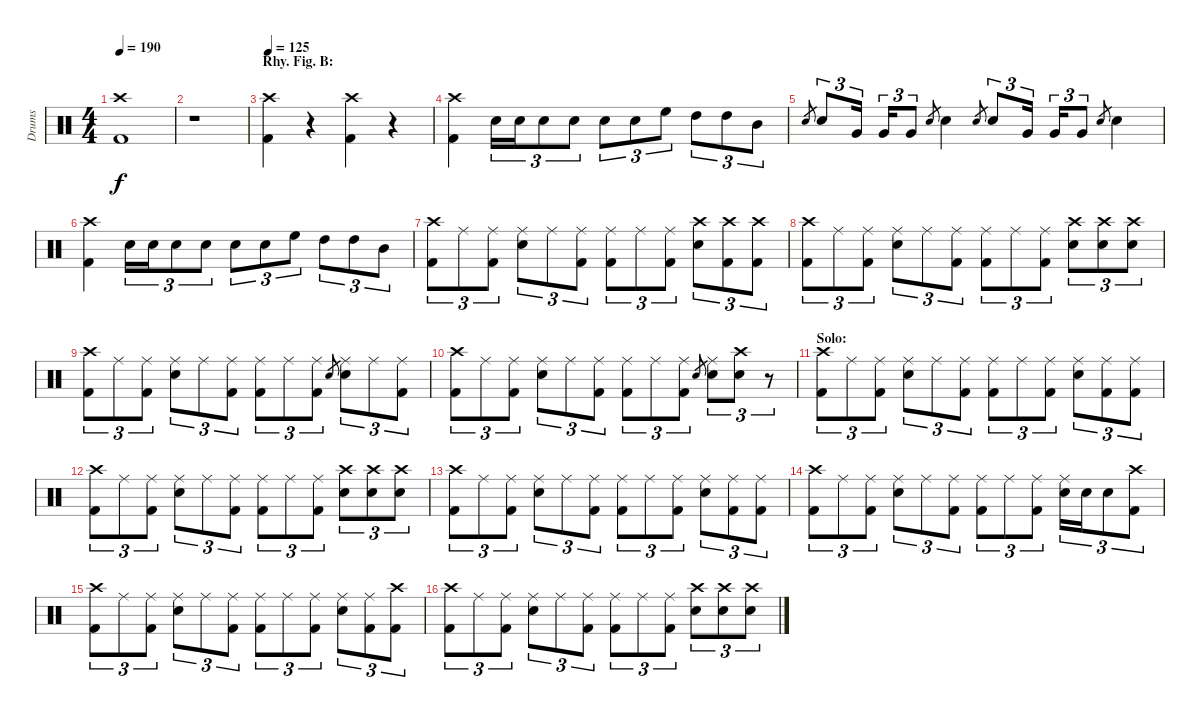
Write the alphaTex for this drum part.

\track ("Drums" "Drums") {instrument percussion}
\staff {score}
\articulation defaults
\ts (4 4)
\tempo 190
\clef neutral
\ks c
("Crash high (hit)" "Kick (hit) 2").1{dy f} |
r.1 |
\section ("" "Rhy. Fig. B:")
\tempo 125
("Crash high (hit)" "Kick (hit) 2").4 r.4 ("Crash high (hit)" "Kick (hit) 2").4 r.4 |
("Crash high (hit)" "Kick (hit) 2").4 "Electric Snare (hit)".16{tu (3 2)} "Electric Snare (hit)".16{tu (3 2)} "Electric Snare (hit)".8{tu (3 2)} "Electric Snare (hit)".8{tu (3 2)} "Electric Snare (hit)".8{tu (3 2)} "Electric Snare (hit)".8{tu (3 2)} "High Floor Tom (hit)".8{tu (3 2)} "High Tom (hit)".8{tu (3 2)} "High Tom (hit)".8{tu (3 2)} "Mid Tom (hit)".8{tu (3 2)} |
"Electric Snare (hit)".8{gr} "Electric Snare (hit)".8{tu (3 2)} "Very Low Tom (hit)".16{tu (3 2)} "Very Low Tom (hit)".16{tu (3 2)} "Very Low Tom (hit)".8{tu (3 2)} "Electric Snare (hit)".8{gr} "Electric Snare (hit)".4 "Electric Snare (hit)".8{gr} "Electric Snare (hit)".8{tu (3 2)} "Very Low Tom (hit)".16{tu (3 2)} "Very Low Tom (hit)".16{tu (3 2)} "Very Low Tom (hit)".8{tu (3 2)} "Electric Snare (hit)".8{gr} "Electric Snare (hit)".4 |
("Crash high (hit)" "Kick (hit) 2").4 "Electric Snare (hit)".16{tu (3 2)} "Electric Snare (hit)".16{tu (3 2)} "Electric Snare (hit)".8{tu (3 2)} "Electric Snare (hit)".8{tu (3 2)} "Electric Snare (hit)".8{tu (3 2)} "Electric Snare (hit)".8{tu (3 2)} "High Floor Tom (hit)".8{tu (3 2)} "High Tom (hit)".8{tu (3 2)} "High Tom (hit)".8{tu (3 2)} "Mid Tom (hit)".8{tu (3 2)} |
("Crash high (hit)" "Kick (hit) 2").8{tu (3 2)} "Ride (middle)".8{tu (3 2)} ("Ride (middle)" "Kick (hit) 2").8{tu (3 2)} ("Ride (middle)" "Electric Snare (hit)").8{tu (3 2)} "Ride (middle)".8{tu (3 2)} ("Ride (middle)" "Kick (hit) 2").8{tu (3 2)} ("Ride (middle)" "Kick (hit) 2").8{tu (3 2)} "Ride (middle)".8{tu (3 2)} ("Ride (middle)" "Kick (hit) 2").8{tu (3 2)} ("Crash high (hit)" "Electric Snare (hit)").8{tu (3 2)} ("Crash high (hit)" "Kick (hit) 2").8{tu (3 2)} ("Crash high (hit)" "Kick (hit) 2").8{tu (3 2)} |
("Crash high (hit)" "Kick (hit) 2").8{tu (3 2)} "Ride (middle)".8{tu (3 2)} ("Ride (middle)" "Kick (hit) 2").8{tu (3 2)} ("Ride (middle)" "Electric Snare (hit)").8{tu (3 2)} "Ride (middle)".8{tu (3 2)} ("Ride (middle)" "Kick (hit) 2").8{tu (3 2)} ("Ride (middle)" "Kick (hit) 2").8{tu (3 2)} "Ride (middle)".8{tu (3 2)} ("Ride (middle)" "Kick (hit) 2").8{tu (3 2)} ("Crash high (hit)" "Electric Snare (hit)").8{tu (3 2)} ("Crash high (hit)" "Electric Snare (hit)").8{tu (3 2)} ("Crash high (hit)" "Electric Snare (hit)").8{tu (3 2)} |
("Crash high (hit)" "Kick (hit) 2").8{tu (3 2)} "Ride (middle)".8{tu (3 2)} ("Ride (middle)" "Kick (hit) 2").8{tu (3 2)} ("Ride (middle)" "Electric Snare (hit)").8{tu (3 2)} "Ride (middle)".8{tu (3 2)} ("Ride (middle)" "Kick (hit) 2").8{tu (3 2)} ("Ride (middle)" "Kick (hit) 2").8{tu (3 2)} "Ride (middle)".8{tu (3 2)} ("Ride (middle)" "Kick (hit) 2").8{tu (3 2)} "Electric Snare (hit)".8{gr} ("Ride (middle)" "Electric Snare (hit)").8{tu (3 2)} "Ride (middle)".8{tu (3 2)} ("Ride (middle)" "Kick (hit) 2").8{tu (3 2)} |
("Crash high (hit)" "Kick (hit) 2").8{tu (3 2)} "Ride (middle)".8{tu (3 2)} ("Ride (middle)" "Kick (hit) 2").8{tu (3 2)} ("Ride (middle)" "Electric Snare (hit)").8{tu (3 2)} "Ride (middle)".8{tu (3 2)} ("Ride (middle)" "Kick (hit) 2").8{tu (3 2)} ("Ride (middle)" "Kick (hit) 2").8{tu (3 2)} "Ride (middle)".8{tu (3 2)} ("Ride (middle)" "Kick (hit) 2").8{tu (3 2)} "Electric Snare (hit)".8{gr} ("Ride (middle)" "Electric Snare (hit)").8{tu (3 2)} ("Crash high (hit)" "Electric Snare (hit)").8{tu (3 2)} r.8{tu (3 2)} |
\section ("" "Solo:")
("Crash high (hit)" "Kick (hit) 2").8{tu (3 2)} "Ride (middle)".8{tu (3 2)} ("Ride (middle)" "Kick (hit) 2").8{tu (3 2)} ("Ride (middle)" "Electric Snare (hit)").8{tu (3 2)} "Ride (middle)".8{tu (3 2)} ("Ride (middle)" "Kick (hit) 2").8{tu (3 2)} ("Ride (middle)" "Kick (hit) 2").8{tu (3 2)} "Ride (middle)".8{tu (3 2)} ("Ride (middle)" "Kick (hit) 2").8{tu (3 2)} ("Ride (middle)" "Electric Snare (hit)").8{tu (3 2)} ("Ride (middle)" "Kick (hit) 2").8{tu (3 2)} ("Ride (middle)" "Kick (hit) 2").8{tu (3 2)} |
("Crash high (hit)" "Kick (hit) 2").8{tu (3 2)} "Ride (middle)".8{tu (3 2)} ("Ride (middle)" "Kick (hit) 2").8{tu (3 2)} ("Ride (middle)" "Electric Snare (hit)").8{tu (3 2)} "Ride (middle)".8{tu (3 2)} ("Ride (middle)" "Kick (hit) 2").8{tu (3 2)} ("Ride (middle)" "Kick (hit) 2").8{tu (3 2)} "Ride (middle)".8{tu (3 2)} ("Ride (middle)" "Kick (hit) 2").8{tu (3 2)} ("Crash high (hit)" "Electric Snare (hit)").8{tu (3 2)} ("Crash high (hit)" "Electric Snare (hit)").8{tu (3 2)} ("Crash high (hit)" "Electric Snare (hit)").8{tu (3 2)} |
("Crash high (hit)" "Kick (hit) 2").8{tu (3 2)} "Ride (middle)".8{tu (3 2)} ("Ride (middle)" "Kick (hit) 2").8{tu (3 2)} ("Ride (middle)" "Electric Snare (hit)").8{tu (3 2)} "Ride (middle)".8{tu (3 2)} ("Ride (middle)" "Kick (hit) 2").8{tu (3 2)} ("Ride (middle)" "Kick (hit) 2").8{tu (3 2)} "Ride (middle)".8{tu (3 2)} ("Ride (middle)" "Kick (hit) 2").8{tu (3 2)} ("Ride (middle)" "Electric Snare (hit)").8{tu (3 2)} ("Ride (middle)" "Kick (hit) 2").8{tu (3 2)} ("Ride (middle)" "Kick (hit) 2").8{tu (3 2)} |
("Crash high (hit)" "Kick (hit) 2").8{tu (3 2)} "Ride (middle)".8{tu (3 2)} ("Ride (middle)" "Kick (hit) 2").8{tu (3 2)} ("Ride (middle)" "Electric Snare (hit)").8{tu (3 2)} "Ride (middle)".8{tu (3 2)} ("Ride (middle)" "Kick (hit) 2").8{tu (3 2)} ("Ride (middle)" "Kick (hit) 2").8{tu (3 2)} "Ride (middle)".8{tu (3 2)} ("Ride (middle)" "Kick (hit) 2").8{tu (3 2)} ("Ride (middle)" "Electric Snare (hit)").16{tu (3 2)} "Electric Snare (hit)".16{tu (3 2)} "Electric Snare (hit)".8{tu (3 2)} ("Crash high (hit)" "Kick (hit) 2").8{tu (3 2)} |
("Crash high (hit)" "Kick (hit) 2").8{tu (3 2)} "Ride (middle)".8{tu (3 2)} ("Ride (middle)" "Kick (hit) 2").8{tu (3 2)} ("Ride (middle)" "Electric Snare (hit)").8{tu (3 2)} "Ride (middle)".8{tu (3 2)} ("Ride (middle)" "Kick (hit) 2").8{tu (3 2)} ("Ride (middle)" "Kick (hit) 2").8{tu (3 2)} "Ride (middle)".8{tu (3 2)} ("Ride (middle)" "Kick (hit) 2").8{tu (3 2)} ("Ride (middle)" "Electric Snare (hit)").8{tu (3 2)} ("Ride (middle)" "Kick (hit) 2").8{tu (3 2)} ("Crash high (hit)" "Kick (hit) 2").8{tu (3 2)} |
("Crash high (hit)" "Kick (hit) 2").8{tu (3 2)} "Ride (middle)".8{tu (3 2)} ("Ride (middle)" "Kick (hit) 2").8{tu (3 2)} ("Ride (middle)" "Electric Snare (hit)").8{tu (3 2)} "Ride (middle)".8{tu (3 2)} ("Ride (middle)" "Kick (hit) 2").8{tu (3 2)} ("Ride (middle)" "Kick (hit) 2").8{tu (3 2)} "Ride (middle)".8{tu (3 2)} ("Ride (middle)" "Kick (hit) 2").8{tu (3 2)} ("Crash high (hit)" "Electric Snare (hit)").8{tu (3 2)} ("Crash high (hit)" "Electric Snare (hit)").8{tu (3 2)} ("Crash high (hit)" "Electric Snare (hit)").8{tu (3 2)}
